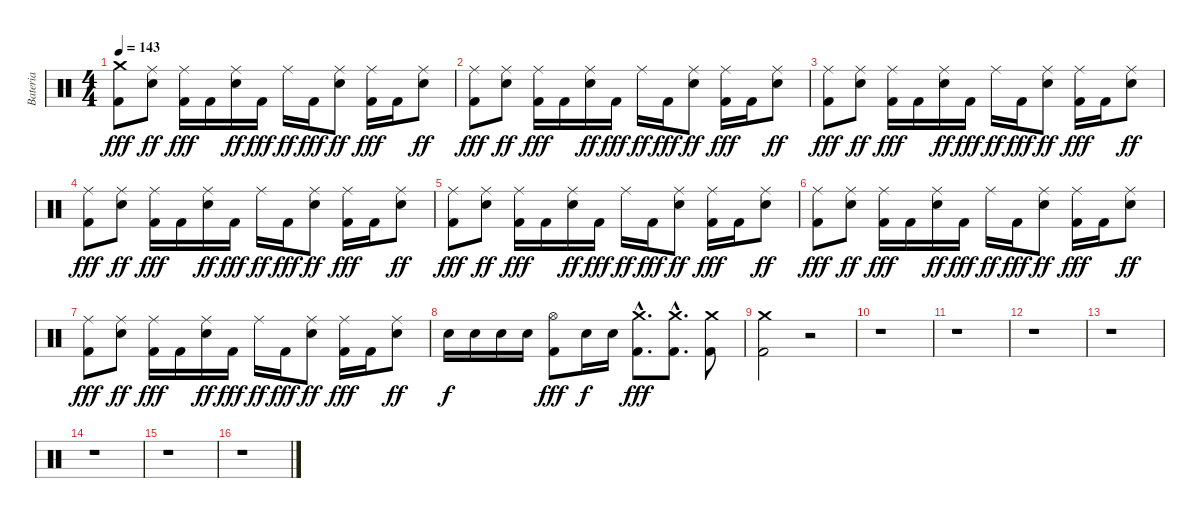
\track ("Bateria" "Bateria") {instrument percussion}
\staff {score}
\articulation defaults
\ts (4 4)
\tempo 143
\clef neutral
\ks c
("Crash medium (hit)" "Kick (hit) 2").8{dy fff} ("Ride (middle)" "Electric Snare (hit)").8{dy ff} ("Ride (middle)" "Kick (hit) 2").16{dy fff} "Kick (hit) 2".16 ("Ride (middle)" "Electric Snare (hit)").16{dy ff} "Kick (hit) 2".16{dy fff} "Ride (middle)".16{dy ff} "Kick (hit) 2".16{dy fff} ("Ride (middle)" "Electric Snare (hit)").8{dy ff} ("Ride (middle)" "Kick (hit) 2").16{dy fff} "Kick (hit) 2".16 ("Ride (middle)" "Electric Snare (hit)").8{dy ff} |
("Ride (middle)" "Kick (hit) 2").8{dy fff} ("Ride (middle)" "Electric Snare (hit)").8{dy ff} ("Ride (middle)" "Kick (hit) 2").16{dy fff} "Kick (hit) 2".16 ("Ride (middle)" "Electric Snare (hit)").16{dy ff} "Kick (hit) 2".16{dy fff} "Ride (middle)".16{dy ff} "Kick (hit) 2".16{dy fff} ("Ride (middle)" "Electric Snare (hit)").8{dy ff} ("Ride (middle)" "Kick (hit) 2").16{dy fff} "Kick (hit) 2".16 ("Ride (middle)" "Electric Snare (hit)").8{dy ff} |
("Ride (middle)" "Kick (hit) 2").8{dy fff} ("Ride (middle)" "Electric Snare (hit)").8{dy ff} ("Ride (middle)" "Kick (hit) 2").16{dy fff} "Kick (hit) 2".16 ("Ride (middle)" "Electric Snare (hit)").16{dy ff} "Kick (hit) 2".16{dy fff} "Ride (middle)".16{dy ff} "Kick (hit) 2".16{dy fff} ("Ride (middle)" "Electric Snare (hit)").8{dy ff} ("Ride (middle)" "Kick (hit) 2").16{dy fff} "Kick (hit) 2".16 ("Ride (middle)" "Electric Snare (hit)").8{dy ff} |
("Ride (middle)" "Kick (hit) 2").8{dy fff} ("Ride (middle)" "Electric Snare (hit)").8{dy ff} ("Ride (middle)" "Kick (hit) 2").16{dy fff} "Kick (hit) 2".16 ("Ride (middle)" "Electric Snare (hit)").16{dy ff} "Kick (hit) 2".16{dy fff} "Ride (middle)".16{dy ff} "Kick (hit) 2".16{dy fff} ("Ride (middle)" "Electric Snare (hit)").8{dy ff} ("Ride (middle)" "Kick (hit) 2").16{dy fff} "Kick (hit) 2".16 ("Ride (middle)" "Electric Snare (hit)").8{dy ff} |
("Ride (middle)" "Kick (hit) 2").8{dy fff} ("Ride (middle)" "Electric Snare (hit)").8{dy ff} ("Ride (middle)" "Kick (hit) 2").16{dy fff} "Kick (hit) 2".16 ("Ride (middle)" "Electric Snare (hit)").16{dy ff} "Kick (hit) 2".16{dy fff} "Ride (middle)".16{dy ff} "Kick (hit) 2".16{dy fff} ("Ride (middle)" "Electric Snare (hit)").8{dy ff} ("Ride (middle)" "Kick (hit) 2").16{dy fff} "Kick (hit) 2".16 ("Ride (middle)" "Electric Snare (hit)").8{dy ff} |
("Ride (middle)" "Kick (hit) 2").8{dy fff} ("Ride (middle)" "Electric Snare (hit)").8{dy ff} ("Ride (middle)" "Kick (hit) 2").16{dy fff} "Kick (hit) 2".16 ("Ride (middle)" "Electric Snare (hit)").16{dy ff} "Kick (hit) 2".16{dy fff} "Ride (middle)".16{dy ff} "Kick (hit) 2".16{dy fff} ("Ride (middle)" "Electric Snare (hit)").8{dy ff} ("Ride (middle)" "Kick (hit) 2").16{dy fff} "Kick (hit) 2".16 ("Ride (middle)" "Electric Snare (hit)").8{dy ff} |
("Ride (middle)" "Kick (hit) 2").8{dy fff} ("Ride (middle)" "Electric Snare (hit)").8{dy ff} ("Ride (middle)" "Kick (hit) 2").16{dy fff} "Kick (hit) 2".16 ("Ride (middle)" "Electric Snare (hit)").16{dy ff} "Kick (hit) 2".16{dy fff} "Ride (middle)".16{dy ff} "Kick (hit) 2".16{dy fff} ("Ride (middle)" "Electric Snare (hit)").8{dy ff} ("Ride (middle)" "Kick (hit) 2").16{dy fff} "Kick (hit) 2".16 ("Ride (middle)" "Electric Snare (hit)").8{dy ff} |
"Electric Snare (hit)".16{dy f} "Electric Snare (hit)".16 "Electric Snare (hit)".16 "Electric Snare (hit)".16 ("Hi-Hat (open)" "Kick (hit) 2").8{dy fff} "Electric Snare (hit)".16{dy f} "Electric Snare (hit)".16 ("Crash medium (hit)"{hac} "Kick (hit) 2"{hac}).8{d dy fff} ("Crash medium (hit)"{hac} "Kick (hit) 2"{hac}).8{d} ("Crash medium (hit)" "Kick (hit) 2").8 |
("Crash medium (hit)" "Kick (hit) 2").2 r.2 |
r.1 |
r.1 |
r.1 |
r.1 |
r.1 |
r.1 |
r.1
